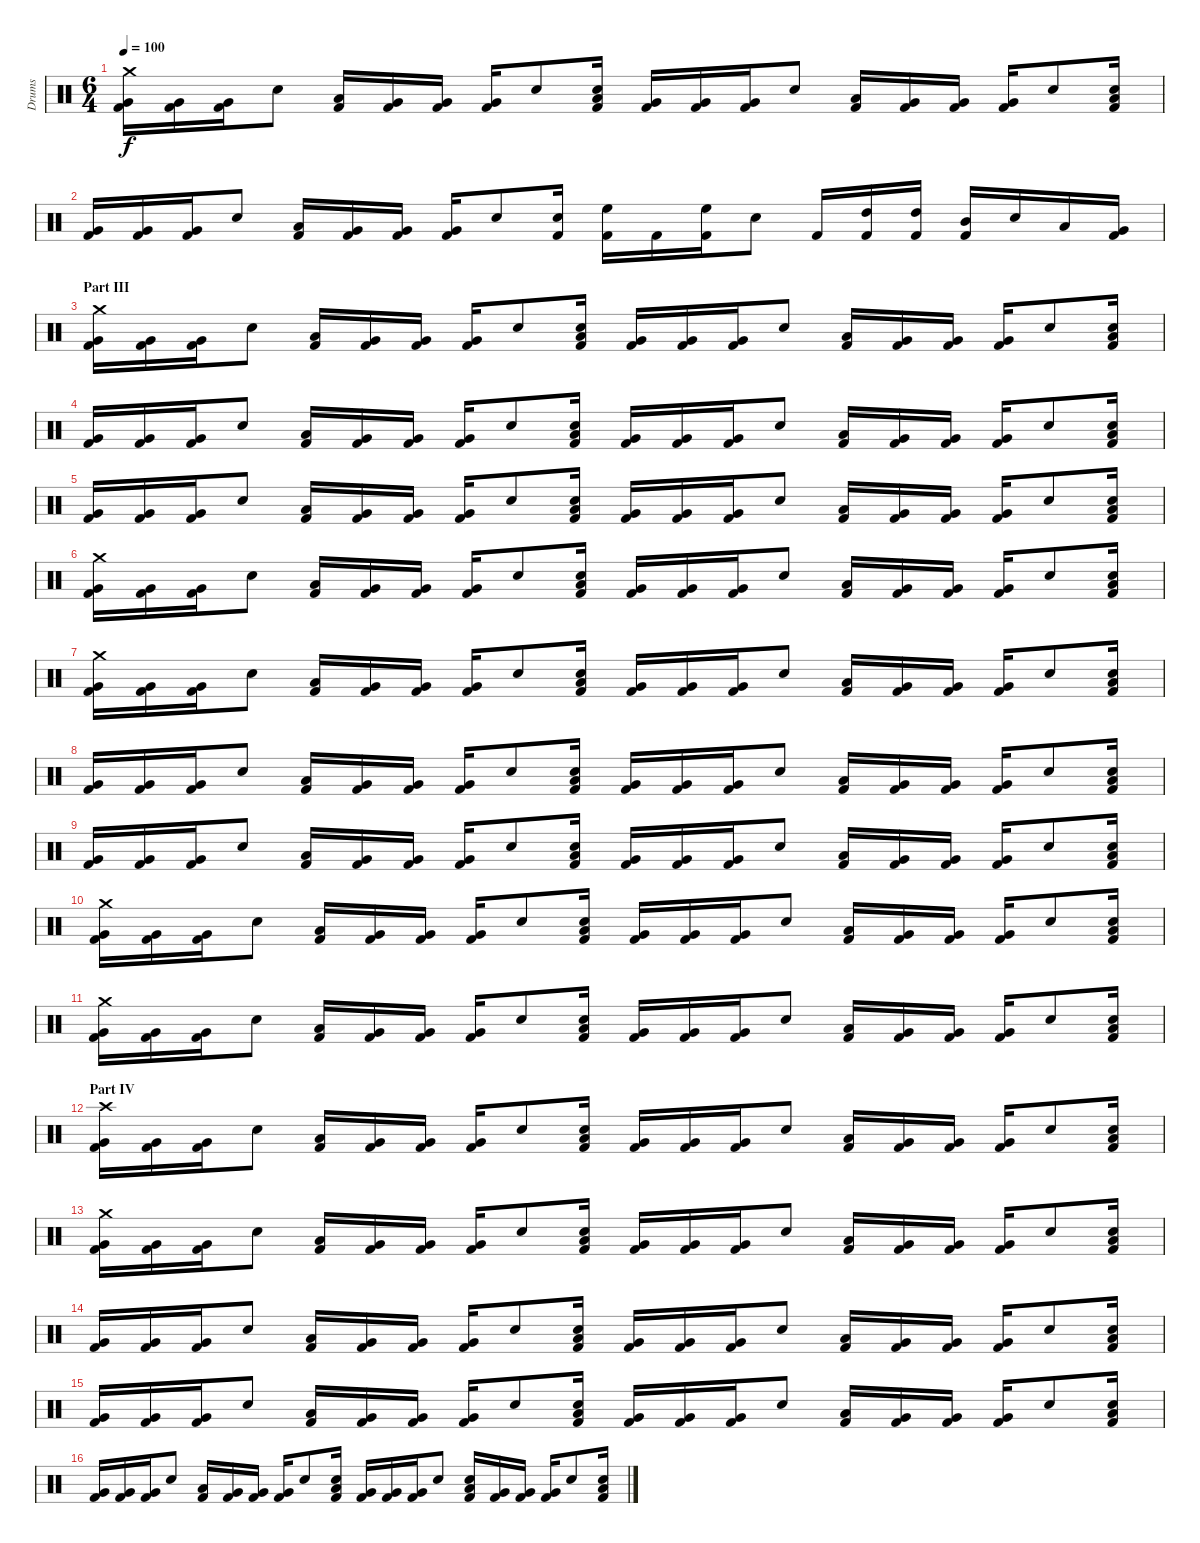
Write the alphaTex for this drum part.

\track ("Drums" "Drums") {instrument percussion}
\staff {score}
\articulation defaults
\ts (6 4)
\tempo 100
\clef neutral
\ks c
("Crash medium (hit)" "Very Low Tom (hit)" "Kick (hit) 2").16{dy f} ("Very Low Tom (hit)" "Kick (hit) 2").16 ("Very Low Tom (hit)" "Kick (hit) 2").16 "Electric Snare (hit)".8 ("Low Floor Tom (hit)" "Kick (hit) 2").16 ("Very Low Tom (hit)" "Kick (hit) 2").16 ("Very Low Tom (hit)" "Kick (hit) 2").16 ("Very Low Tom (hit)" "Kick (hit) 2").16 "Electric Snare (hit)".8 ("Electric Snare (hit)" "Low Floor Tom (hit)" "Kick (hit) 2").16 ("Very Low Tom (hit)" "Kick (hit) 2").16 ("Very Low Tom (hit)" "Kick (hit) 2").16 ("Very Low Tom (hit)" "Kick (hit) 2").16 "Electric Snare (hit)".8 ("Low Floor Tom (hit)" "Kick (hit) 2").16 ("Very Low Tom (hit)" "Kick (hit) 2").16 ("Very Low Tom (hit)" "Kick (hit) 2").16 ("Very Low Tom (hit)" "Kick (hit) 2").16 "Electric Snare (hit)".8 ("Electric Snare (hit)" "Low Floor Tom (hit)" "Kick (hit) 2").16 |
("Very Low Tom (hit)" "Kick (hit) 2").16 ("Very Low Tom (hit)" "Kick (hit) 2").16 ("Very Low Tom (hit)" "Kick (hit) 2").16 "Electric Snare (hit)".8 ("Low Floor Tom (hit)" "Kick (hit) 2").16 ("Very Low Tom (hit)" "Kick (hit) 2").16 ("Very Low Tom (hit)" "Kick (hit) 2").16 ("Very Low Tom (hit)" "Kick (hit) 2").16 "Electric Snare (hit)".8 ("Electric Snare (hit)" "Kick (hit) 2").16 ("High Floor Tom (hit)" "Kick (hit) 2").16 "Kick (hit) 2".16 ("High Floor Tom (hit)" "Kick (hit) 2").16 "Electric Snare (hit)".8 "Kick (hit) 2".16 ("High Tom (hit)" "Kick (hit) 2").16 ("High Tom (hit)" "Kick (hit) 2").16 ("Mid Tom (hit)" "Kick (hit) 2").16 "Electric Snare (hit)".16 "Low Tom (hit)".16 ("Very Low Tom (hit)" "Kick (hit) 2").16 |
\section ("" "Part III")
("Crash medium (hit)" "Very Low Tom (hit)" "Kick (hit) 2").16 ("Very Low Tom (hit)" "Kick (hit) 2").16 ("Very Low Tom (hit)" "Kick (hit) 2").16 "Electric Snare (hit)".8 ("Low Floor Tom (hit)" "Kick (hit) 2").16 ("Very Low Tom (hit)" "Kick (hit) 2").16 ("Very Low Tom (hit)" "Kick (hit) 2").16 ("Very Low Tom (hit)" "Kick (hit) 2").16 "Electric Snare (hit)".8 ("Electric Snare (hit)" "Low Floor Tom (hit)" "Kick (hit) 2").16 ("Very Low Tom (hit)" "Kick (hit) 2").16 ("Very Low Tom (hit)" "Kick (hit) 2").16 ("Very Low Tom (hit)" "Kick (hit) 2").16 "Electric Snare (hit)".8 ("Low Floor Tom (hit)" "Kick (hit) 2").16 ("Very Low Tom (hit)" "Kick (hit) 2").16 ("Very Low Tom (hit)" "Kick (hit) 2").16 ("Very Low Tom (hit)" "Kick (hit) 2").16 "Electric Snare (hit)".8 ("Electric Snare (hit)" "Low Floor Tom (hit)" "Kick (hit) 2").16 |
("Very Low Tom (hit)" "Kick (hit) 2").16 ("Very Low Tom (hit)" "Kick (hit) 2").16 ("Very Low Tom (hit)" "Kick (hit) 2").16 "Electric Snare (hit)".8 ("Low Floor Tom (hit)" "Kick (hit) 2").16 ("Very Low Tom (hit)" "Kick (hit) 2").16 ("Very Low Tom (hit)" "Kick (hit) 2").16 ("Very Low Tom (hit)" "Kick (hit) 2").16 "Electric Snare (hit)".8 ("Electric Snare (hit)" "Low Floor Tom (hit)" "Kick (hit) 2").16 ("Very Low Tom (hit)" "Kick (hit) 2").16 ("Very Low Tom (hit)" "Kick (hit) 2").16 ("Very Low Tom (hit)" "Kick (hit) 2").16 "Electric Snare (hit)".8 ("Low Floor Tom (hit)" "Kick (hit) 2").16 ("Very Low Tom (hit)" "Kick (hit) 2").16 ("Very Low Tom (hit)" "Kick (hit) 2").16 ("Very Low Tom (hit)" "Kick (hit) 2").16 "Electric Snare (hit)".8 ("Electric Snare (hit)" "Low Floor Tom (hit)" "Kick (hit) 2").16 |
("Very Low Tom (hit)" "Kick (hit) 2").16 ("Very Low Tom (hit)" "Kick (hit) 2").16 ("Very Low Tom (hit)" "Kick (hit) 2").16 "Electric Snare (hit)".8 ("Low Floor Tom (hit)" "Kick (hit) 2").16 ("Very Low Tom (hit)" "Kick (hit) 2").16 ("Very Low Tom (hit)" "Kick (hit) 2").16 ("Very Low Tom (hit)" "Kick (hit) 2").16 "Electric Snare (hit)".8 ("Electric Snare (hit)" "Low Floor Tom (hit)" "Kick (hit) 2").16 ("Very Low Tom (hit)" "Kick (hit) 2").16 ("Very Low Tom (hit)" "Kick (hit) 2").16 ("Very Low Tom (hit)" "Kick (hit) 2").16 "Electric Snare (hit)".8 ("Low Floor Tom (hit)" "Kick (hit) 2").16 ("Very Low Tom (hit)" "Kick (hit) 2").16 ("Very Low Tom (hit)" "Kick (hit) 2").16 ("Very Low Tom (hit)" "Kick (hit) 2").16 "Electric Snare (hit)".8 ("Electric Snare (hit)" "Low Floor Tom (hit)" "Kick (hit) 2").16 |
("Crash medium (hit)" "Very Low Tom (hit)" "Kick (hit) 2").16 ("Very Low Tom (hit)" "Kick (hit) 2").16 ("Very Low Tom (hit)" "Kick (hit) 2").16 "Electric Snare (hit)".8 ("Low Floor Tom (hit)" "Kick (hit) 2").16 ("Very Low Tom (hit)" "Kick (hit) 2").16 ("Very Low Tom (hit)" "Kick (hit) 2").16 ("Very Low Tom (hit)" "Kick (hit) 2").16 "Electric Snare (hit)".8 ("Electric Snare (hit)" "Low Floor Tom (hit)" "Kick (hit) 2").16 ("Very Low Tom (hit)" "Kick (hit) 2").16 ("Very Low Tom (hit)" "Kick (hit) 2").16 ("Very Low Tom (hit)" "Kick (hit) 2").16 "Electric Snare (hit)".8 ("Low Floor Tom (hit)" "Kick (hit) 2").16 ("Very Low Tom (hit)" "Kick (hit) 2").16 ("Very Low Tom (hit)" "Kick (hit) 2").16 ("Very Low Tom (hit)" "Kick (hit) 2").16 "Electric Snare (hit)".8 ("Electric Snare (hit)" "Low Floor Tom (hit)" "Kick (hit) 2").16 |
("Crash medium (hit)" "Very Low Tom (hit)" "Kick (hit) 2").16 ("Very Low Tom (hit)" "Kick (hit) 2").16 ("Very Low Tom (hit)" "Kick (hit) 2").16 "Electric Snare (hit)".8 ("Low Floor Tom (hit)" "Kick (hit) 2").16 ("Very Low Tom (hit)" "Kick (hit) 2").16 ("Very Low Tom (hit)" "Kick (hit) 2").16 ("Very Low Tom (hit)" "Kick (hit) 2").16 "Electric Snare (hit)".8 ("Electric Snare (hit)" "Low Floor Tom (hit)" "Kick (hit) 2").16 ("Very Low Tom (hit)" "Kick (hit) 2").16 ("Very Low Tom (hit)" "Kick (hit) 2").16 ("Very Low Tom (hit)" "Kick (hit) 2").16 "Electric Snare (hit)".8 ("Low Floor Tom (hit)" "Kick (hit) 2").16 ("Very Low Tom (hit)" "Kick (hit) 2").16 ("Very Low Tom (hit)" "Kick (hit) 2").16 ("Very Low Tom (hit)" "Kick (hit) 2").16 "Electric Snare (hit)".8 ("Electric Snare (hit)" "Low Floor Tom (hit)" "Kick (hit) 2").16 |
("Very Low Tom (hit)" "Kick (hit) 2").16 ("Very Low Tom (hit)" "Kick (hit) 2").16 ("Very Low Tom (hit)" "Kick (hit) 2").16 "Electric Snare (hit)".8 ("Low Floor Tom (hit)" "Kick (hit) 2").16 ("Very Low Tom (hit)" "Kick (hit) 2").16 ("Very Low Tom (hit)" "Kick (hit) 2").16 ("Very Low Tom (hit)" "Kick (hit) 2").16 "Electric Snare (hit)".8 ("Electric Snare (hit)" "Low Floor Tom (hit)" "Kick (hit) 2").16 ("Very Low Tom (hit)" "Kick (hit) 2").16 ("Very Low Tom (hit)" "Kick (hit) 2").16 ("Very Low Tom (hit)" "Kick (hit) 2").16 "Electric Snare (hit)".8 ("Low Floor Tom (hit)" "Kick (hit) 2").16 ("Very Low Tom (hit)" "Kick (hit) 2").16 ("Very Low Tom (hit)" "Kick (hit) 2").16 ("Very Low Tom (hit)" "Kick (hit) 2").16 "Electric Snare (hit)".8 ("Electric Snare (hit)" "Low Floor Tom (hit)" "Kick (hit) 2").16 |
("Very Low Tom (hit)" "Kick (hit) 2").16 ("Very Low Tom (hit)" "Kick (hit) 2").16 ("Very Low Tom (hit)" "Kick (hit) 2").16 "Electric Snare (hit)".8 ("Low Floor Tom (hit)" "Kick (hit) 2").16 ("Very Low Tom (hit)" "Kick (hit) 2").16 ("Very Low Tom (hit)" "Kick (hit) 2").16 ("Very Low Tom (hit)" "Kick (hit) 2").16 "Electric Snare (hit)".8 ("Electric Snare (hit)" "Low Floor Tom (hit)" "Kick (hit) 2").16 ("Very Low Tom (hit)" "Kick (hit) 2").16 ("Very Low Tom (hit)" "Kick (hit) 2").16 ("Very Low Tom (hit)" "Kick (hit) 2").16 "Electric Snare (hit)".8 ("Low Floor Tom (hit)" "Kick (hit) 2").16 ("Very Low Tom (hit)" "Kick (hit) 2").16 ("Very Low Tom (hit)" "Kick (hit) 2").16 ("Very Low Tom (hit)" "Kick (hit) 2").16 "Electric Snare (hit)".8 ("Electric Snare (hit)" "Low Floor Tom (hit)" "Kick (hit) 2").16 |
("Crash medium (hit)" "Very Low Tom (hit)" "Kick (hit) 2").16 ("Very Low Tom (hit)" "Kick (hit) 2").16 ("Very Low Tom (hit)" "Kick (hit) 2").16 "Electric Snare (hit)".8 ("Low Floor Tom (hit)" "Kick (hit) 2").16 ("Very Low Tom (hit)" "Kick (hit) 2").16 ("Very Low Tom (hit)" "Kick (hit) 2").16 ("Very Low Tom (hit)" "Kick (hit) 2").16 "Electric Snare (hit)".8 ("Electric Snare (hit)" "Low Floor Tom (hit)" "Kick (hit) 2").16 ("Very Low Tom (hit)" "Kick (hit) 2").16 ("Very Low Tom (hit)" "Kick (hit) 2").16 ("Very Low Tom (hit)" "Kick (hit) 2").16 "Electric Snare (hit)".8 ("Low Floor Tom (hit)" "Kick (hit) 2").16 ("Very Low Tom (hit)" "Kick (hit) 2").16 ("Very Low Tom (hit)" "Kick (hit) 2").16 ("Very Low Tom (hit)" "Kick (hit) 2").16 "Electric Snare (hit)".8 ("Electric Snare (hit)" "Low Floor Tom (hit)" "Kick (hit) 2").16 |
("Crash medium (hit)" "Very Low Tom (hit)" "Kick (hit) 2").16 ("Very Low Tom (hit)" "Kick (hit) 2").16 ("Very Low Tom (hit)" "Kick (hit) 2").16 "Electric Snare (hit)".8 ("Low Floor Tom (hit)" "Kick (hit) 2").16 ("Very Low Tom (hit)" "Kick (hit) 2").16 ("Very Low Tom (hit)" "Kick (hit) 2").16 ("Very Low Tom (hit)" "Kick (hit) 2").16 "Electric Snare (hit)".8 ("Electric Snare (hit)" "Low Floor Tom (hit)" "Kick (hit) 2").16 ("Very Low Tom (hit)" "Kick (hit) 2").16 ("Very Low Tom (hit)" "Kick (hit) 2").16 ("Very Low Tom (hit)" "Kick (hit) 2").16 "Electric Snare (hit)".8 ("Low Floor Tom (hit)" "Kick (hit) 2").16 ("Very Low Tom (hit)" "Kick (hit) 2").16 ("Very Low Tom (hit)" "Kick (hit) 2").16 ("Very Low Tom (hit)" "Kick (hit) 2").16 "Electric Snare (hit)".8 ("Electric Snare (hit)" "Low Floor Tom (hit)" "Kick (hit) 2").16 |
\section ("" "Part IV")
("Crash high (hit)" "Very Low Tom (hit)" "Kick (hit) 2").16 ("Very Low Tom (hit)" "Kick (hit) 2").16 ("Very Low Tom (hit)" "Kick (hit) 2").16 "Electric Snare (hit)".8 ("Low Floor Tom (hit)" "Kick (hit) 2").16 ("Very Low Tom (hit)" "Kick (hit) 2").16 ("Very Low Tom (hit)" "Kick (hit) 2").16 ("Very Low Tom (hit)" "Kick (hit) 2").16 "Electric Snare (hit)".8 ("Electric Snare (hit)" "Low Floor Tom (hit)" "Kick (hit) 2").16 ("Very Low Tom (hit)" "Kick (hit) 2").16 ("Very Low Tom (hit)" "Kick (hit) 2").16 ("Very Low Tom (hit)" "Kick (hit) 2").16 "Electric Snare (hit)".8 ("Low Floor Tom (hit)" "Kick (hit) 2").16 ("Very Low Tom (hit)" "Kick (hit) 2").16 ("Very Low Tom (hit)" "Kick (hit) 2").16 ("Very Low Tom (hit)" "Kick (hit) 2").16 "Electric Snare (hit)".8 ("Electric Snare (hit)" "Low Floor Tom (hit)" "Kick (hit) 2").16 |
("Crash medium (hit)" "Very Low Tom (hit)" "Kick (hit) 2").16 ("Very Low Tom (hit)" "Kick (hit) 2").16 ("Very Low Tom (hit)" "Kick (hit) 2").16 "Electric Snare (hit)".8 ("Low Floor Tom (hit)" "Kick (hit) 2").16 ("Very Low Tom (hit)" "Kick (hit) 2").16 ("Very Low Tom (hit)" "Kick (hit) 2").16 ("Very Low Tom (hit)" "Kick (hit) 2").16 "Electric Snare (hit)".8 ("Electric Snare (hit)" "Low Floor Tom (hit)" "Kick (hit) 2").16 ("Very Low Tom (hit)" "Kick (hit) 2").16 ("Very Low Tom (hit)" "Kick (hit) 2").16 ("Very Low Tom (hit)" "Kick (hit) 2").16 "Electric Snare (hit)".8 ("Low Floor Tom (hit)" "Kick (hit) 2").16 ("Very Low Tom (hit)" "Kick (hit) 2").16 ("Very Low Tom (hit)" "Kick (hit) 2").16 ("Very Low Tom (hit)" "Kick (hit) 2").16 "Electric Snare (hit)".8 ("Electric Snare (hit)" "Low Floor Tom (hit)" "Kick (hit) 2").16 |
("Very Low Tom (hit)" "Kick (hit) 2").16 ("Very Low Tom (hit)" "Kick (hit) 2").16 ("Very Low Tom (hit)" "Kick (hit) 2").16 "Electric Snare (hit)".8 ("Low Floor Tom (hit)" "Kick (hit) 2").16 ("Very Low Tom (hit)" "Kick (hit) 2").16 ("Very Low Tom (hit)" "Kick (hit) 2").16 ("Very Low Tom (hit)" "Kick (hit) 2").16 "Electric Snare (hit)".8 ("Electric Snare (hit)" "Low Floor Tom (hit)" "Kick (hit) 2").16 ("Very Low Tom (hit)" "Kick (hit) 2").16 ("Very Low Tom (hit)" "Kick (hit) 2").16 ("Very Low Tom (hit)" "Kick (hit) 2").16 "Electric Snare (hit)".8 ("Low Floor Tom (hit)" "Kick (hit) 2").16 ("Very Low Tom (hit)" "Kick (hit) 2").16 ("Very Low Tom (hit)" "Kick (hit) 2").16 ("Very Low Tom (hit)" "Kick (hit) 2").16 "Electric Snare (hit)".8 ("Electric Snare (hit)" "Low Floor Tom (hit)" "Kick (hit) 2").16 |
("Very Low Tom (hit)" "Kick (hit) 2").16 ("Very Low Tom (hit)" "Kick (hit) 2").16 ("Very Low Tom (hit)" "Kick (hit) 2").16 "Electric Snare (hit)".8 ("Low Floor Tom (hit)" "Kick (hit) 2").16 ("Very Low Tom (hit)" "Kick (hit) 2").16 ("Very Low Tom (hit)" "Kick (hit) 2").16 ("Very Low Tom (hit)" "Kick (hit) 2").16 "Electric Snare (hit)".8 ("Electric Snare (hit)" "Low Floor Tom (hit)" "Kick (hit) 2").16 ("Very Low Tom (hit)" "Kick (hit) 2").16 ("Very Low Tom (hit)" "Kick (hit) 2").16 ("Very Low Tom (hit)" "Kick (hit) 2").16 "Electric Snare (hit)".8 ("Low Floor Tom (hit)" "Kick (hit) 2").16 ("Very Low Tom (hit)" "Kick (hit) 2").16 ("Very Low Tom (hit)" "Kick (hit) 2").16 ("Very Low Tom (hit)" "Kick (hit) 2").16 "Electric Snare (hit)".8 ("Electric Snare (hit)" "Low Floor Tom (hit)" "Kick (hit) 2").16 |
("Very Low Tom (hit)" "Kick (hit) 2").16 ("Very Low Tom (hit)" "Kick (hit) 2").16 ("Very Low Tom (hit)" "Kick (hit) 2").16 "Electric Snare (hit)".8 ("Low Floor Tom (hit)" "Kick (hit) 2").16 ("Very Low Tom (hit)" "Kick (hit) 2").16 ("Very Low Tom (hit)" "Kick (hit) 2").16 ("Very Low Tom (hit)" "Kick (hit) 2").16 "Electric Snare (hit)".8 ("Electric Snare (hit)" "Low Floor Tom (hit)" "Kick (hit) 2").16 ("Very Low Tom (hit)" "Kick (hit) 2").16 ("Very Low Tom (hit)" "Kick (hit) 2").16 ("Very Low Tom (hit)" "Kick (hit) 2").16 "Electric Snare (hit)".8 ("Electric Snare (hit)" "Low Floor Tom (hit)" "Kick (hit) 2").16 ("Very Low Tom (hit)" "Kick (hit) 2").16 ("Very Low Tom (hit)" "Kick (hit) 2").16 ("Very Low Tom (hit)" "Kick (hit) 2").16 "Electric Snare (hit)".8 ("Electric Snare (hit)" "Low Floor Tom (hit)" "Kick (hit) 2").16
